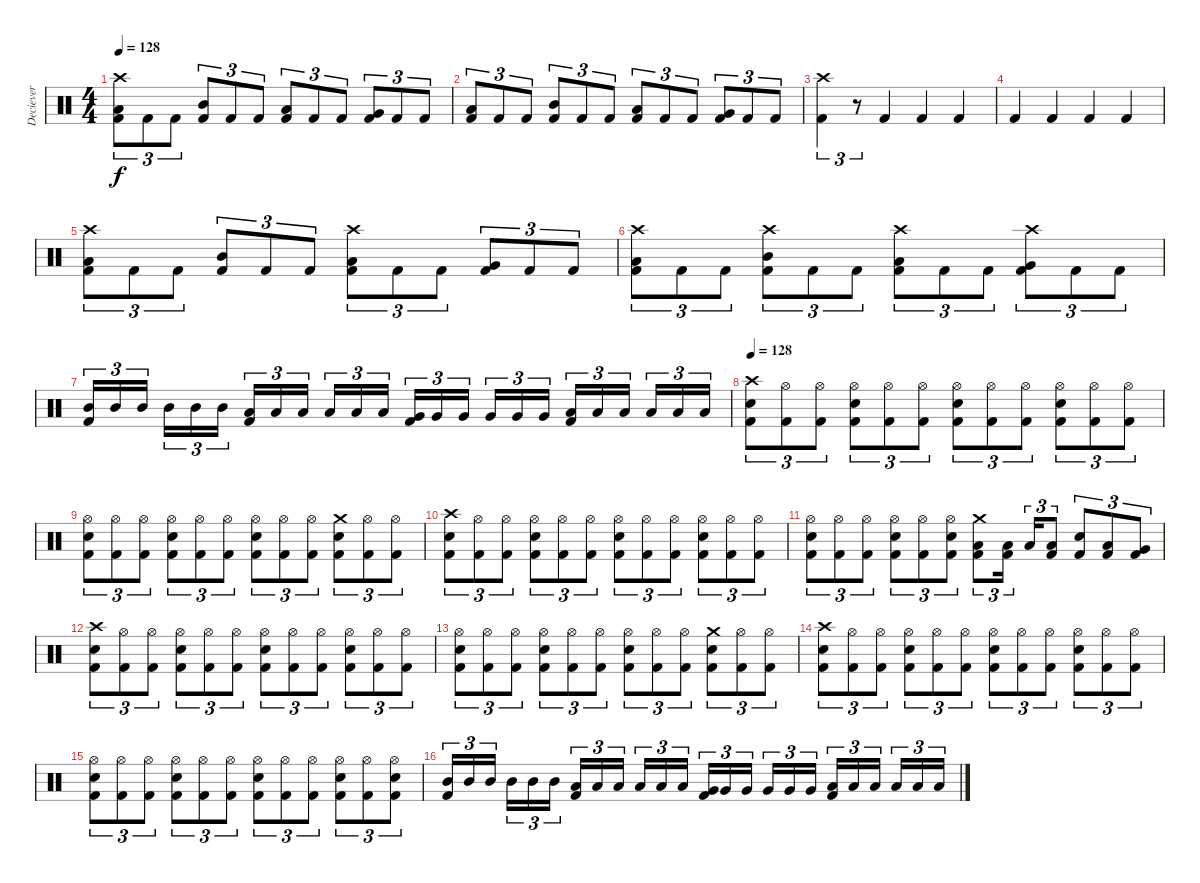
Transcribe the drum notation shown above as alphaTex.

\track ("Deciever" "Deciever") {instrument percussion}
\staff {score}
\articulation defaults
\ts (4 4)
\tempo 128
\clef neutral
\ks c
("Crash high (hit)" "Low Floor Tom (hit)" "Kick (hit) 2").8{tu (3 2) dy f} "Kick (hit) 2".8{tu (3 2)} "Kick (hit) 2".8{tu (3 2)} ("Mid Tom (hit)" "Kick (hit) 2").8{tu (3 2)} "Kick (hit) 2".8{tu (3 2)} "Kick (hit) 2".8{tu (3 2)} ("Low Tom (hit)" "Kick (hit) 2").8{tu (3 2)} "Kick (hit) 2".8{tu (3 2)} "Kick (hit) 2".8{tu (3 2)} ("Very Low Tom (hit)" "Kick (hit) 2").8{tu (3 2)} "Kick (hit) 2".8{tu (3 2)} "Kick (hit) 2".8{tu (3 2)} |
("Low Floor Tom (hit)" "Kick (hit) 2").8{tu (3 2)} "Kick (hit) 2".8{tu (3 2)} "Kick (hit) 2".8{tu (3 2)} ("Mid Tom (hit)" "Kick (hit) 2").8{tu (3 2)} "Kick (hit) 2".8{tu (3 2)} "Kick (hit) 2".8{tu (3 2)} ("Low Tom (hit)" "Kick (hit) 2").8{tu (3 2)} "Kick (hit) 2".8{tu (3 2)} "Kick (hit) 2".8{tu (3 2)} ("Very Low Tom (hit)" "Kick (hit) 2").8{tu (3 2)} "Kick (hit) 2".8{tu (3 2)} "Kick (hit) 2".8{tu (3 2)} |
("Crash high (hit)" "Kick (hit) 2").4{tu (3 2)} r.8{tu (3 2)} "Kick (hit) 2".4 "Kick (hit) 2".4 "Kick (hit) 2".4 |
"Kick (hit) 2".4 "Kick (hit) 2".4 "Kick (hit) 2".4 "Kick (hit) 2".4 |
("Crash high (hit)" "Low Floor Tom (hit)" "Kick (hit) 2").8{tu (3 2)} "Kick (hit) 2".8{tu (3 2)} "Kick (hit) 2".8{tu (3 2)} ("Mid Tom (hit)" "Kick (hit) 2").8{tu (3 2)} "Kick (hit) 2".8{tu (3 2)} "Kick (hit) 2".8{tu (3 2)} ("Crash high (hit)" "Low Tom (hit)" "Kick (hit) 2").8{tu (3 2)} "Kick (hit) 2".8{tu (3 2)} "Kick (hit) 2".8{tu (3 2)} ("Very Low Tom (hit)" "Kick (hit) 2").8{tu (3 2)} "Kick (hit) 2".8{tu (3 2)} "Kick (hit) 2".8{tu (3 2)} |
("Crash high (hit)" "Low Floor Tom (hit)" "Kick (hit) 2").8{tu (3 2)} "Kick (hit) 2".8{tu (3 2)} "Kick (hit) 2".8{tu (3 2)} ("Crash high (hit)" "Mid Tom (hit)" "Kick (hit) 2").8{tu (3 2)} "Kick (hit) 2".8{tu (3 2)} "Kick (hit) 2".8{tu (3 2)} ("Crash high (hit)" "Low Tom (hit)" "Kick (hit) 2").8{tu (3 2)} "Kick (hit) 2".8{tu (3 2)} "Kick (hit) 2".8{tu (3 2)} ("Crash high (hit)" "Very Low Tom (hit)" "Kick (hit) 2").8{tu (3 2)} "Kick (hit) 2".8{tu (3 2)} "Kick (hit) 2".8{tu (3 2)} |
("Mid Tom (hit)" "Kick (hit) 2").16{tu (3 2)} "Mid Tom (hit)".16{tu (3 2)} "Mid Tom (hit)".16{tu (3 2) beam splitsecondary} "Mid Tom (hit)".16{tu (3 2)} "Mid Tom (hit)".16{tu (3 2)} "Mid Tom (hit)".16{tu (3 2)} ("Low Tom (hit)" "Kick (hit) 2").16{tu (3 2)} "Low Tom (hit)".16{tu (3 2)} "Low Tom (hit)".16{tu (3 2) beam splitsecondary} "Low Tom (hit)".16{tu (3 2)} "Low Tom (hit)".16{tu (3 2)} "Low Tom (hit)".16{tu (3 2)} ("Very Low Tom (hit)" "Kick (hit) 2").16{tu (3 2)} "Very Low Tom (hit)".16{tu (3 2)} "Very Low Tom (hit)".16{tu (3 2) beam splitsecondary} "Very Low Tom (hit)".16{tu (3 2)} "Very Low Tom (hit)".16{tu (3 2)} "Very Low Tom (hit)".16{tu (3 2)} ("Low Floor Tom (hit)" "Kick (hit) 2").16{tu (3 2)} "Low Floor Tom (hit)".16{tu (3 2)} "Low Floor Tom (hit)".16{tu (3 2) beam splitsecondary} "Low Floor Tom (hit)".16{tu (3 2)} "Low Floor Tom (hit)".16{tu (3 2)} "Low Floor Tom (hit)".16{tu (3 2)} |
\tempo 128
("Crash high (hit)" "Electric Snare (hit)" "Kick (hit) 2").8{tu (3 2)} ("Hi-Hat (open)" "Kick (hit) 2").8{tu (3 2)} ("Hi-Hat (open)" "Kick (hit) 2").8{tu (3 2)} ("Hi-Hat (open)" "Electric Snare (hit)" "Kick (hit) 2").8{tu (3 2)} ("Hi-Hat (open)" "Kick (hit) 2").8{tu (3 2)} ("Hi-Hat (open)" "Kick (hit) 2").8{tu (3 2)} ("Hi-Hat (open)" "Electric Snare (hit)" "Kick (hit) 2").8{tu (3 2)} ("Hi-Hat (open)" "Kick (hit) 2").8{tu (3 2)} ("Hi-Hat (open)" "Kick (hit) 2").8{tu (3 2)} ("Hi-Hat (open)" "Electric Snare (hit)" "Kick (hit) 2").8{tu (3 2)} ("Hi-Hat (open)" "Kick (hit) 2").8{tu (3 2)} ("Hi-Hat (open)" "Kick (hit) 2").8{tu (3 2)} |
("Hi-Hat (open)" "Electric Snare (hit)" "Kick (hit) 2").8{tu (3 2)} ("Hi-Hat (open)" "Kick (hit) 2").8{tu (3 2)} ("Hi-Hat (open)" "Kick (hit) 2").8{tu (3 2)} ("Hi-Hat (open)" "Electric Snare (hit)" "Kick (hit) 2").8{tu (3 2)} ("Hi-Hat (open)" "Kick (hit) 2").8{tu (3 2)} ("Hi-Hat (open)" "Kick (hit) 2").8{tu (3 2)} ("Hi-Hat (open)" "Electric Snare (hit)" "Kick (hit) 2").8{tu (3 2)} ("Hi-Hat (open)" "Kick (hit) 2").8{tu (3 2)} ("Hi-Hat (open)" "Kick (hit) 2").8{tu (3 2)} ("Crash medium (hit)" "Electric Snare (hit)" "Kick (hit) 2").8{tu (3 2)} ("Hi-Hat (open)" "Kick (hit) 2").8{tu (3 2)} ("Hi-Hat (open)" "Kick (hit) 2").8{tu (3 2)} |
("Crash high (hit)" "Electric Snare (hit)" "Kick (hit) 2").8{tu (3 2)} ("Hi-Hat (open)" "Kick (hit) 2").8{tu (3 2)} ("Hi-Hat (open)" "Kick (hit) 2").8{tu (3 2)} ("Hi-Hat (open)" "Electric Snare (hit)" "Kick (hit) 2").8{tu (3 2)} ("Hi-Hat (open)" "Kick (hit) 2").8{tu (3 2)} ("Hi-Hat (open)" "Kick (hit) 2").8{tu (3 2)} ("Hi-Hat (open)" "Electric Snare (hit)" "Kick (hit) 2").8{tu (3 2)} ("Hi-Hat (open)" "Kick (hit) 2").8{tu (3 2)} ("Hi-Hat (open)" "Kick (hit) 2").8{tu (3 2)} ("Hi-Hat (open)" "Electric Snare (hit)" "Kick (hit) 2").8{tu (3 2)} ("Hi-Hat (open)" "Kick (hit) 2").8{tu (3 2)} ("Hi-Hat (open)" "Kick (hit) 2").8{tu (3 2)} |
("Hi-Hat (open)" "Electric Snare (hit)" "Kick (hit) 2").8{tu (3 2)} ("Hi-Hat (open)" "Kick (hit) 2").8{tu (3 2)} ("Hi-Hat (open)" "Kick (hit) 2").8{tu (3 2)} ("Hi-Hat (open)" "Electric Snare (hit)" "Kick (hit) 2").8{tu (3 2)} ("Hi-Hat (open)" "Kick (hit) 2").8{tu (3 2)} ("Hi-Hat (open)" "Electric Snare (hit)" "Kick (hit) 2").8{tu (3 2)} ("Crash medium (hit)" "Low Tom (hit)" "Kick (hit) 2").8{tu (3 2)} ("Low Tom (hit)" "Kick (hit) 2").16{tu (3 2) beam splitsecondary} "Low Tom (hit)".16{tu (3 2)} ("Low Tom (hit)" "Kick (hit) 2").8{tu (3 2)} ("Electric Snare (hit)" "Kick (hit) 2").8{tu (3 2)} ("Low Tom (hit)" "Kick (hit) 2").8{tu (3 2)} ("Very Low Tom (hit)" "Kick (hit) 2").8{tu (3 2)} |
("Crash high (hit)" "Electric Snare (hit)" "Kick (hit) 2").8{tu (3 2)} ("Hi-Hat (open)" "Kick (hit) 2").8{tu (3 2)} ("Hi-Hat (open)" "Kick (hit) 2").8{tu (3 2)} ("Hi-Hat (open)" "Electric Snare (hit)" "Kick (hit) 2").8{tu (3 2)} ("Hi-Hat (open)" "Kick (hit) 2").8{tu (3 2)} ("Hi-Hat (open)" "Kick (hit) 2").8{tu (3 2)} ("Hi-Hat (open)" "Electric Snare (hit)" "Kick (hit) 2").8{tu (3 2)} ("Hi-Hat (open)" "Kick (hit) 2").8{tu (3 2)} ("Hi-Hat (open)" "Kick (hit) 2").8{tu (3 2)} ("Hi-Hat (open)" "Electric Snare (hit)" "Kick (hit) 2").8{tu (3 2)} ("Hi-Hat (open)" "Kick (hit) 2").8{tu (3 2)} ("Hi-Hat (open)" "Kick (hit) 2").8{tu (3 2)} |
("Hi-Hat (open)" "Electric Snare (hit)" "Kick (hit) 2").8{tu (3 2)} ("Hi-Hat (open)" "Kick (hit) 2").8{tu (3 2)} ("Hi-Hat (open)" "Kick (hit) 2").8{tu (3 2)} ("Hi-Hat (open)" "Electric Snare (hit)" "Kick (hit) 2").8{tu (3 2)} ("Hi-Hat (open)" "Kick (hit) 2").8{tu (3 2)} ("Hi-Hat (open)" "Kick (hit) 2").8{tu (3 2)} ("Hi-Hat (open)" "Electric Snare (hit)" "Kick (hit) 2").8{tu (3 2)} ("Hi-Hat (open)" "Kick (hit) 2").8{tu (3 2)} ("Hi-Hat (open)" "Kick (hit) 2").8{tu (3 2)} ("Crash medium (hit)" "Electric Snare (hit)" "Kick (hit) 2").8{tu (3 2)} ("Hi-Hat (open)" "Kick (hit) 2").8{tu (3 2)} ("Hi-Hat (open)" "Kick (hit) 2").8{tu (3 2)} |
("Crash high (hit)" "Electric Snare (hit)" "Kick (hit) 2").8{tu (3 2)} ("Hi-Hat (open)" "Kick (hit) 2").8{tu (3 2)} ("Hi-Hat (open)" "Kick (hit) 2").8{tu (3 2)} ("Hi-Hat (open)" "Electric Snare (hit)" "Kick (hit) 2").8{tu (3 2)} ("Hi-Hat (open)" "Kick (hit) 2").8{tu (3 2)} ("Hi-Hat (open)" "Kick (hit) 2").8{tu (3 2)} ("Hi-Hat (open)" "Electric Snare (hit)" "Kick (hit) 2").8{tu (3 2)} ("Hi-Hat (open)" "Kick (hit) 2").8{tu (3 2)} ("Hi-Hat (open)" "Kick (hit) 2").8{tu (3 2)} ("Hi-Hat (open)" "Electric Snare (hit)" "Kick (hit) 2").8{tu (3 2)} ("Hi-Hat (open)" "Kick (hit) 2").8{tu (3 2)} ("Hi-Hat (open)" "Kick (hit) 2").8{tu (3 2)} |
("Hi-Hat (open)" "Electric Snare (hit)" "Kick (hit) 2").8{tu (3 2)} ("Hi-Hat (open)" "Kick (hit) 2").8{tu (3 2)} ("Hi-Hat (open)" "Kick (hit) 2").8{tu (3 2)} ("Hi-Hat (open)" "Electric Snare (hit)" "Kick (hit) 2").8{tu (3 2)} ("Hi-Hat (open)" "Kick (hit) 2").8{tu (3 2)} ("Hi-Hat (open)" "Kick (hit) 2").8{tu (3 2)} ("Hi-Hat (open)" "Electric Snare (hit)" "Kick (hit) 2").8{tu (3 2)} ("Hi-Hat (open)" "Kick (hit) 2").8{tu (3 2)} ("Hi-Hat (open)" "Kick (hit) 2").8{tu (3 2)} ("Hi-Hat (open)" "Electric Snare (hit)" "Kick (hit) 2").8{tu (3 2)} ("Hi-Hat (open)" "Kick (hit) 2").8{tu (3 2)} ("Hi-Hat (open)" "Electric Snare (hit)" "Kick (hit) 2").8{tu (3 2)} |
("Mid Tom (hit)" "Kick (hit) 2").16{tu (3 2)} "Mid Tom (hit)".16{tu (3 2)} "Mid Tom (hit)".16{tu (3 2) beam splitsecondary} "Mid Tom (hit)".16{tu (3 2)} "Mid Tom (hit)".16{tu (3 2)} "Mid Tom (hit)".16{tu (3 2)} ("Low Tom (hit)" "Kick (hit) 2").16{tu (3 2)} "Low Tom (hit)".16{tu (3 2)} "Low Tom (hit)".16{tu (3 2) beam splitsecondary} "Low Tom (hit)".16{tu (3 2)} "Low Tom (hit)".16{tu (3 2)} "Low Tom (hit)".16{tu (3 2)} ("Very Low Tom (hit)" "Kick (hit) 2").16{tu (3 2)} "Very Low Tom (hit)".16{tu (3 2)} "Very Low Tom (hit)".16{tu (3 2) beam splitsecondary} "Very Low Tom (hit)".16{tu (3 2)} "Very Low Tom (hit)".16{tu (3 2)} "Very Low Tom (hit)".16{tu (3 2)} ("Low Floor Tom (hit)" "Kick (hit) 2").16{tu (3 2)} "Low Floor Tom (hit)".16{tu (3 2)} "Low Floor Tom (hit)".16{tu (3 2) beam splitsecondary} "Low Floor Tom (hit)".16{tu (3 2)} "Low Floor Tom (hit)".16{tu (3 2)} "Low Floor Tom (hit)".16{tu (3 2)}
